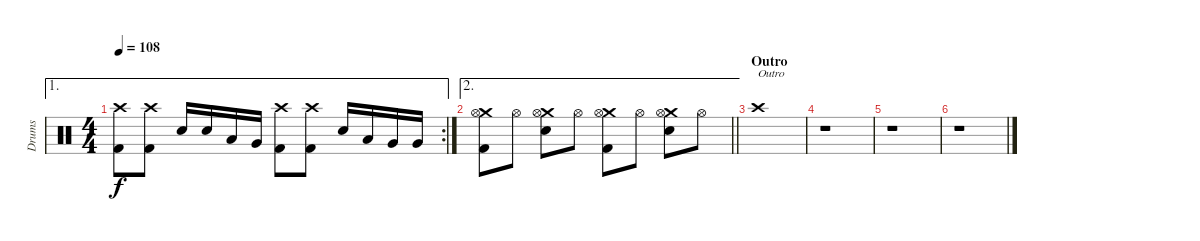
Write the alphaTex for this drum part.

\track ("Drums" "Drums") {instrument percussion}
\staff {score}
\articulation defaults
\ae 1
\rc 2
\ts (4 4)
\tempo 108
\clef neutral
\ks c
("Crash high (hit)" "Kick (hit) 2").8{dy f} ("Crash high (hit)" "Kick (hit) 2").8 "Snare (hit) 2".16 "Snare (hit) 2".16 "Low Tom (hit)".16 "Very Low Tom (hit)".16 ("Crash high (hit)" "Kick (hit) 2").8 ("Crash high (hit)" "Kick (hit) 2").8 "Snare (hit) 2".16 "Low Tom (hit)".16 "Very Low Tom (hit)".16 "Very Low Tom (hit)".16 |
\ae 2
\barLineRight lightlight
("Crash medium (hit)" "Hi-Hat (open)" "Kick (hit) 2").8 "Hi-Hat (open)".8 ("Crash medium (hit)" "Hi-Hat (open)" "Snare (hit) 2").8 "Hi-Hat (open)".8 ("Crash medium (hit)" "Hi-Hat (open)" "Kick (hit) 2").8 "Hi-Hat (open)".8 ("Crash medium (hit)" "Hi-Hat (open)" "Snare (hit) 2").8 "Hi-Hat (open)".8 |
\section ("" "Outro")
"Crash high (hit)".1{txt "Outro"} |
r.1 |
r.1 |
r.1
